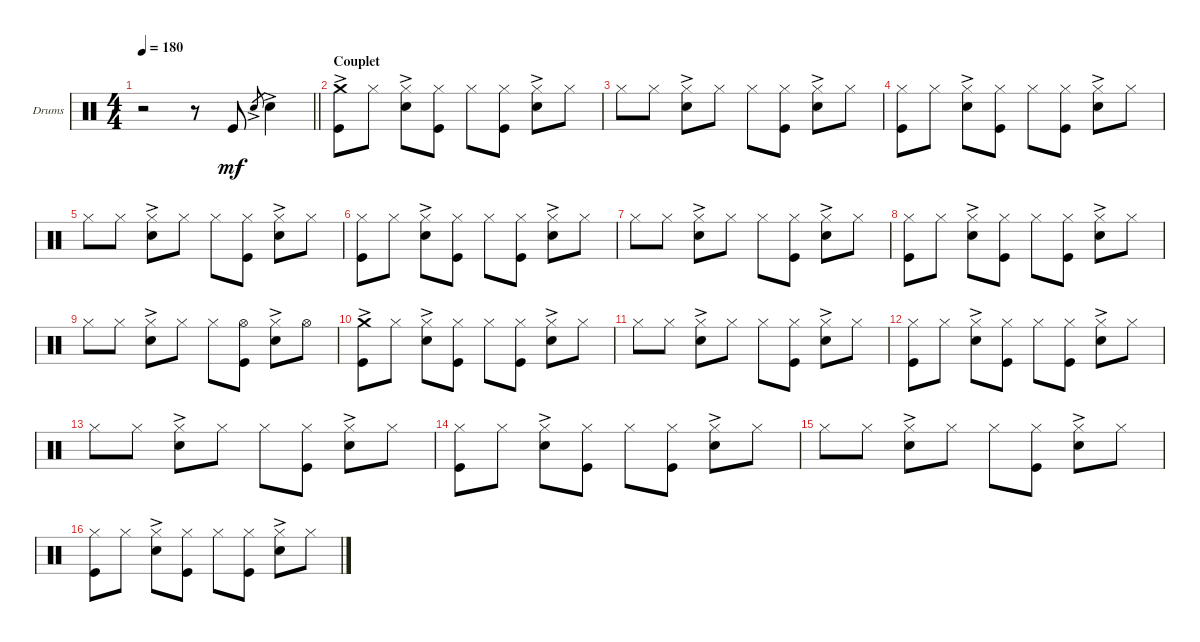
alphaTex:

\defaultSystemsLayout 4
\bracketExtendMode groupsimilarinstruments
\firstSystemTrackNameOrientation horizontal
\otherSystemsTrackNameOrientation horizontal
\track ("Will - Drumkit" "Drums") {instrument percussion}
\staff {score}
\articulation defaults
\ts (4 4)
\tempo 180
\clef neutral
\scale
0.472222
\barLineRight lightlight
\ks c
r.2{dy mf} r.8 "Kick (hit)".8 "Snare (hit) 2"{ac}.8{gr} "Snare (hit) 2"{ac}.4 |
\section ("" "Couplet")
\scale
0.263889 ("Crash medium (hit)"{ac} "Kick (hit)").8 "Hi-Hat (closed)".8 ("Hi-Hat (closed)" "Snare (hit) 2"{ac}).8 ("Hi-Hat (closed)" "Kick (hit)").8 "Hi-Hat (closed)".8 ("Hi-Hat (closed)" "Kick (hit)").8 ("Hi-Hat (closed)" "Snare (hit) 2"{ac}).8 "Hi-Hat (closed)".8 |
\scale
0.263889 "Hi-Hat (closed)".8 "Hi-Hat (closed)".8 ("Hi-Hat (closed)" "Snare (hit) 2"{ac}).8 "Hi-Hat (closed)".8 "Hi-Hat (closed)".8 ("Hi-Hat (closed)" "Kick (hit)").8 ("Hi-Hat (closed)" "Snare (hit) 2"{ac}).8 "Hi-Hat (closed)".8 |
\scale
0.333333 ("Kick (hit)" "Hi-Hat (closed)").8 "Hi-Hat (closed)".8 ("Hi-Hat (closed)" "Snare (hit) 2"{ac}).8 ("Hi-Hat (closed)" "Kick (hit)").8 "Hi-Hat (closed)".8 ("Hi-Hat (closed)" "Kick (hit)").8 ("Hi-Hat (closed)" "Snare (hit) 2"{ac}).8 "Hi-Hat (closed)".8 |
\scale
0.333333 "Hi-Hat (closed)".8 "Hi-Hat (closed)".8 ("Hi-Hat (closed)" "Snare (hit) 2"{ac}).8 "Hi-Hat (closed)".8 "Hi-Hat (closed)".8 ("Hi-Hat (closed)" "Kick (hit)").8 ("Hi-Hat (closed)" "Snare (hit) 2"{ac}).8 "Hi-Hat (closed)".8 |
\scale
0.333333 ("Kick (hit)" "Hi-Hat (closed)").8 "Hi-Hat (closed)".8 ("Hi-Hat (closed)" "Snare (hit) 2"{ac}).8 ("Hi-Hat (closed)" "Kick (hit)").8 "Hi-Hat (closed)".8 ("Hi-Hat (closed)" "Kick (hit)").8 ("Hi-Hat (closed)" "Snare (hit) 2"{ac}).8 "Hi-Hat (closed)".8 |
\scale
0.333333 "Hi-Hat (closed)".8 "Hi-Hat (closed)".8 ("Hi-Hat (closed)" "Snare (hit) 2"{ac}).8 "Hi-Hat (closed)".8 "Hi-Hat (closed)".8 ("Hi-Hat (closed)" "Kick (hit)").8 ("Hi-Hat (closed)" "Snare (hit) 2"{ac}).8 "Hi-Hat (closed)".8 |
\scale
0.333333 ("Kick (hit)" "Hi-Hat (closed)").8 "Hi-Hat (closed)".8 ("Hi-Hat (closed)" "Snare (hit) 2"{ac}).8 ("Hi-Hat (closed)" "Kick (hit)").8 "Hi-Hat (closed)".8 ("Hi-Hat (closed)" "Kick (hit)").8 ("Hi-Hat (closed)" "Snare (hit) 2"{ac}).8 "Hi-Hat (closed)".8 |
\scale
0.333333 "Hi-Hat (closed)".8 "Hi-Hat (closed)".8 ("Hi-Hat (closed)" "Snare (hit) 2"{ac}).8 "Hi-Hat (closed)".8 "Hi-Hat (closed)".8 ("Hi-Hat (open)" "Kick (hit)").8 ("Hi-Hat (closed)" "Snare (hit) 2"{ac}).8 "Hi-Hat (open)".8 |
\scale
0.333333 ("Kick (hit)" "Crash medium (hit)"{ac}).8 "Hi-Hat (closed)".8 ("Hi-Hat (closed)" "Snare (hit) 2"{ac}).8 ("Hi-Hat (closed)" "Kick (hit)").8 "Hi-Hat (closed)".8 ("Hi-Hat (closed)" "Kick (hit)").8 ("Hi-Hat (closed)" "Snare (hit) 2"{ac}).8 "Hi-Hat (closed)".8 |
\scale
0.333333 "Hi-Hat (closed)".8 "Hi-Hat (closed)".8 ("Hi-Hat (closed)" "Snare (hit) 2"{ac}).8 "Hi-Hat (closed)".8 "Hi-Hat (closed)".8 ("Hi-Hat (closed)" "Kick (hit)").8 ("Hi-Hat (closed)" "Snare (hit) 2"{ac}).8 "Hi-Hat (closed)".8 |
\scale
0.333333 ("Kick (hit)" "Hi-Hat (closed)").8 "Hi-Hat (closed)".8 ("Hi-Hat (closed)" "Snare (hit) 2"{ac}).8 ("Hi-Hat (closed)" "Kick (hit)").8 "Hi-Hat (closed)".8 ("Hi-Hat (closed)" "Kick (hit)").8 ("Hi-Hat (closed)" "Snare (hit) 2"{ac}).8 "Hi-Hat (closed)".8 |
\scale
0.333333 "Hi-Hat (closed)".8 "Hi-Hat (closed)".8 ("Hi-Hat (closed)" "Snare (hit) 2"{ac}).8 "Hi-Hat (closed)".8 "Hi-Hat (closed)".8 ("Hi-Hat (closed)" "Kick (hit)").8 ("Hi-Hat (closed)" "Snare (hit) 2"{ac}).8 "Hi-Hat (closed)".8 |
\scale
0.333333 ("Kick (hit)" "Hi-Hat (closed)").8 "Hi-Hat (closed)".8 ("Hi-Hat (closed)" "Snare (hit) 2"{ac}).8 ("Hi-Hat (closed)" "Kick (hit)").8 "Hi-Hat (closed)".8 ("Hi-Hat (closed)" "Kick (hit)").8 ("Hi-Hat (closed)" "Snare (hit) 2"{ac}).8 "Hi-Hat (closed)".8 |
\scale
0.333333 "Hi-Hat (closed)".8 "Hi-Hat (closed)".8 ("Hi-Hat (closed)" "Snare (hit) 2"{ac}).8 "Hi-Hat (closed)".8 "Hi-Hat (closed)".8 ("Hi-Hat (closed)" "Kick (hit)").8 ("Hi-Hat (closed)" "Snare (hit) 2"{ac}).8 "Hi-Hat (closed)".8 |
("Kick (hit)" "Hi-Hat (closed)").8 "Hi-Hat (closed)".8 ("Hi-Hat (closed)" "Snare (hit) 2"{ac}).8 ("Hi-Hat (closed)" "Kick (hit)").8 "Hi-Hat (closed)".8 ("Hi-Hat (closed)" "Kick (hit)").8 ("Hi-Hat (closed)" "Snare (hit) 2"{ac}).8 "Hi-Hat (closed)".8
